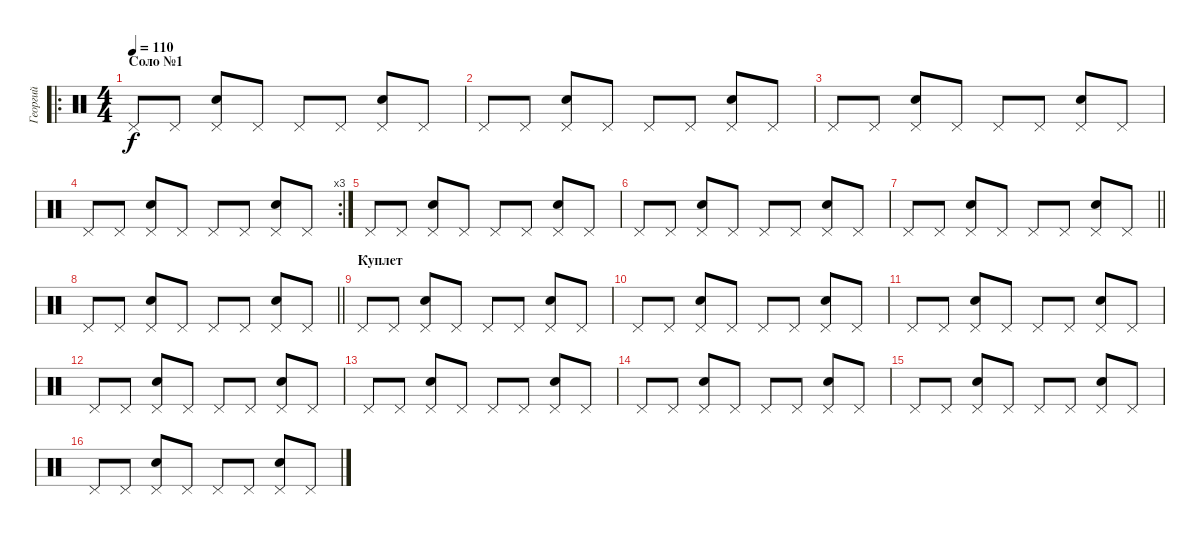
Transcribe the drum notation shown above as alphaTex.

\track ("Георгий" "Георгий") {instrument percussion}
\staff {score}
\articulation defaults
\ro
\ts (4 4)
\section ("" "Соло №1")
\tempo 110
\clef neutral
\ks c "Pedal Hi-Hat (hit)".8{dy f} "Pedal Hi-Hat (hit)".8
("Pedal Hi-Hat (hit)" "Snare (hit) 2").8 "Pedal Hi-Hat (hit)".8 "Pedal Hi-Hat (hit)".8 "Pedal Hi-Hat (hit)".8 ("Pedal Hi-Hat (hit)" "Snare (hit) 2").8 "Pedal Hi-Hat (hit)".8 |
"Pedal Hi-Hat (hit)".8 "Pedal Hi-Hat (hit)".8 ("Pedal Hi-Hat (hit)" "Snare (hit) 2").8 "Pedal Hi-Hat (hit)".8 "Pedal Hi-Hat (hit)".8 "Pedal Hi-Hat (hit)".8 ("Pedal Hi-Hat (hit)" "Snare (hit) 2").8 "Pedal Hi-Hat (hit)".8 |
"Pedal Hi-Hat (hit)".8 "Pedal Hi-Hat (hit)".8 ("Pedal Hi-Hat (hit)" "Snare (hit) 2").8 "Pedal Hi-Hat (hit)".8 "Pedal Hi-Hat (hit)".8 "Pedal Hi-Hat (hit)".8 ("Pedal Hi-Hat (hit)" "Snare (hit) 2").8 "Pedal Hi-Hat (hit)".8 |
\rc 3 "Pedal Hi-Hat (hit)".8 "Pedal Hi-Hat (hit)".8
("Pedal Hi-Hat (hit)" "Snare (hit) 2").8 "Pedal Hi-Hat (hit)".8 "Pedal Hi-Hat (hit)".8 "Pedal Hi-Hat (hit)".8 ("Pedal Hi-Hat (hit)" "Snare (hit) 2").8 "Pedal Hi-Hat (hit)".8 |
"Pedal Hi-Hat (hit)".8 "Pedal Hi-Hat (hit)".8 ("Pedal Hi-Hat (hit)" "Snare (hit) 2").8 "Pedal Hi-Hat (hit)".8 "Pedal Hi-Hat (hit)".8 "Pedal Hi-Hat (hit)".8 ("Pedal Hi-Hat (hit)" "Snare (hit) 2").8 "Pedal Hi-Hat (hit)".8 |
"Pedal Hi-Hat (hit)".8 "Pedal Hi-Hat (hit)".8 ("Pedal Hi-Hat (hit)" "Snare (hit) 2").8 "Pedal Hi-Hat (hit)".8 "Pedal Hi-Hat (hit)".8 "Pedal Hi-Hat (hit)".8 ("Pedal Hi-Hat (hit)" "Snare (hit) 2").8 "Pedal Hi-Hat (hit)".8 |
\barLineRight lightlight "Pedal Hi-Hat (hit)".8 "Pedal Hi-Hat (hit)".8
("Pedal Hi-Hat (hit)" "Snare (hit) 2").8 "Pedal Hi-Hat (hit)".8 "Pedal Hi-Hat (hit)".8 "Pedal Hi-Hat (hit)".8 ("Pedal Hi-Hat (hit)" "Snare (hit) 2").8 "Pedal Hi-Hat (hit)".8 |
\section ("" "")
\barLineRight lightlight "Pedal Hi-Hat (hit)".8 "Pedal Hi-Hat (hit)".8
("Pedal Hi-Hat (hit)" "Snare (hit) 2").8 "Pedal Hi-Hat (hit)".8 "Pedal Hi-Hat (hit)".8 "Pedal Hi-Hat (hit)".8 ("Pedal Hi-Hat (hit)" "Snare (hit) 2").8 "Pedal Hi-Hat (hit)".8 |
\section ("" "Куплет")
"Pedal Hi-Hat (hit)".8{volume 14} "Pedal Hi-Hat (hit)".8 ("Pedal Hi-Hat (hit)" "Snare (hit) 2").8 "Pedal Hi-Hat (hit)".8 "Pedal Hi-Hat (hit)".8 "Pedal Hi-Hat (hit)".8 ("Pedal Hi-Hat (hit)" "Snare (hit) 2").8 "Pedal Hi-Hat (hit)".8 |
"Pedal Hi-Hat (hit)".8 "Pedal Hi-Hat (hit)".8 ("Pedal Hi-Hat (hit)" "Snare (hit) 2").8 "Pedal Hi-Hat (hit)".8 "Pedal Hi-Hat (hit)".8 "Pedal Hi-Hat (hit)".8 ("Pedal Hi-Hat (hit)" "Snare (hit) 2").8 "Pedal Hi-Hat (hit)".8 |
"Pedal Hi-Hat (hit)".8 "Pedal Hi-Hat (hit)".8 ("Pedal Hi-Hat (hit)" "Snare (hit) 2").8 "Pedal Hi-Hat (hit)".8 "Pedal Hi-Hat (hit)".8 "Pedal Hi-Hat (hit)".8 ("Pedal Hi-Hat (hit)" "Snare (hit) 2").8 "Pedal Hi-Hat (hit)".8 |
"Pedal Hi-Hat (hit)".8 "Pedal Hi-Hat (hit)".8 ("Pedal Hi-Hat (hit)" "Snare (hit) 2").8 "Pedal Hi-Hat (hit)".8 "Pedal Hi-Hat (hit)".8 "Pedal Hi-Hat (hit)".8 ("Pedal Hi-Hat (hit)" "Snare (hit) 2").8 "Pedal Hi-Hat (hit)".8 |
"Pedal Hi-Hat (hit)".8 "Pedal Hi-Hat (hit)".8 ("Pedal Hi-Hat (hit)" "Snare (hit) 2").8 "Pedal Hi-Hat (hit)".8 "Pedal Hi-Hat (hit)".8 "Pedal Hi-Hat (hit)".8 ("Pedal Hi-Hat (hit)" "Snare (hit) 2").8 "Pedal Hi-Hat (hit)".8 |
"Pedal Hi-Hat (hit)".8 "Pedal Hi-Hat (hit)".8 ("Pedal Hi-Hat (hit)" "Snare (hit) 2").8 "Pedal Hi-Hat (hit)".8 "Pedal Hi-Hat (hit)".8 "Pedal Hi-Hat (hit)".8 ("Pedal Hi-Hat (hit)" "Snare (hit) 2").8 "Pedal Hi-Hat (hit)".8 |
"Pedal Hi-Hat (hit)".8 "Pedal Hi-Hat (hit)".8 ("Pedal Hi-Hat (hit)" "Snare (hit) 2").8 "Pedal Hi-Hat (hit)".8 "Pedal Hi-Hat (hit)".8 "Pedal Hi-Hat (hit)".8 ("Pedal Hi-Hat (hit)" "Snare (hit) 2").8 "Pedal Hi-Hat (hit)".8 |
"Pedal Hi-Hat (hit)".8 "Pedal Hi-Hat (hit)".8 ("Pedal Hi-Hat (hit)" "Snare (hit) 2").8 "Pedal Hi-Hat (hit)".8 "Pedal Hi-Hat (hit)".8 "Pedal Hi-Hat (hit)".8 ("Pedal Hi-Hat (hit)" "Snare (hit) 2").8 "Pedal Hi-Hat (hit)".8
